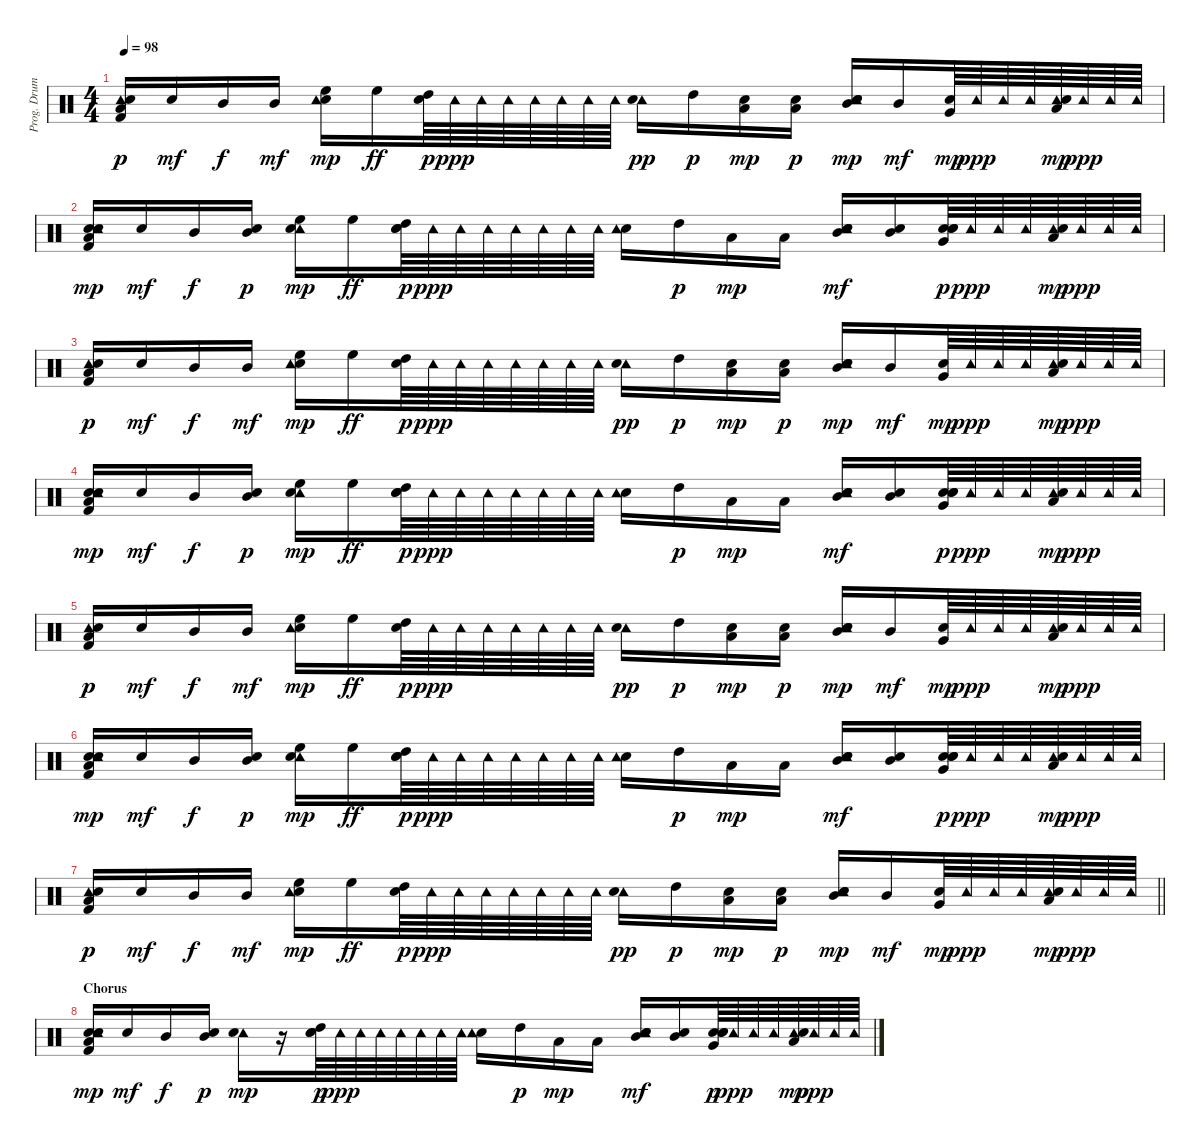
\track ("Prog. Drums" "Prog. Drum") {instrument percussion}
\staff {score}
\articulation defaults
\ts (4 4)
\tempo 98
\clef neutral
\ks c
("Tambourine (hit)" "Snare (hit)" "Low Floor Tom (hit)" "Kick (hit) 2").16{dy p} "Snare (hit)".16{dy mf} "Mid Tom (hit)".16{dy f} "Mid Tom (hit)".16{dy mf} ("Snare (hit) 2" "High Floor Tom (hit)" "Tambourine (hit)").16{dy mp} "High Floor Tom (hit)".16{dy ff} ("High Tom (hit)" "Snare (hit)").64{dy p} "Tambourine (hit)".64{dy ppp} "Tambourine (hit)".64 "Tambourine (hit)".64 "Tambourine (hit)".64 "Tambourine (hit)".64 "Tambourine (hit)".64 "Tambourine (hit)".64 ("Tambourine (hit)" "Snare (hit) 2").16{dy pp} "High Tom (hit)".16{dy p} ("Snare (hit)" "Low Tom (hit)").16{dy mp} ("Low Tom (hit)" "Snare (hit)").16{dy p} ("Snare (hit) 2" "Mid Tom (hit)" "Snare (hit)" "Tambourine (hit)").16{dy mp} "Mid Tom (hit)".16{dy mf} ("Snare (hit)" "Very Low Tom (hit)").64{dy mp} "Tambourine (hit)".64{dy ppp} "Tambourine (hit)".64 "Tambourine (hit)".64 ("Tambourine (hit)" "Snare (hit) 2" "Low Tom (hit)").64{dy mp} "Tambourine (hit)".64{dy ppp} "Tambourine (hit)".64 "Tambourine (hit)".64 |
("Snare (hit)" "Snare (hit)" "Tambourine (hit)" "Kick (hit) 2" "Low Floor Tom (hit)").16{dy mp} "Snare (hit)".16{dy mf} "Mid Tom (hit)".16{dy f} ("Mid Tom (hit)" "Snare (hit)").16{dy p} ("Tambourine (hit)" "High Floor Tom (hit)" "Snare (hit) 2").16{dy mp} "High Floor Tom (hit)".16{dy ff} ("High Tom (hit)" "Snare (hit)" "Snare (hit)").64{dy p} "Tambourine (hit)".64{dy ppp} "Tambourine (hit)".64 "Tambourine (hit)".64 "Tambourine (hit)".64 "Tambourine (hit)".64 "Tambourine (hit)".64 "Tambourine (hit)".64 ("Snare (hit) 2" "Tambourine (hit)").16 "High Tom (hit)".16{dy p} "Low Tom (hit)".16{dy mp} "Low Tom (hit)".16 ("Tambourine (hit)" "Snare (hit)" "Snare (hit) 2" "Mid Tom (hit)").16{dy mf} ("Snare (hit) 2" "Mid Tom (hit)").16 ("Snare (hit) 2" "Very Low Tom (hit)" "Snare (hit)" "Snare (hit)").64{dy p} "Tambourine (hit)".64{dy ppp} "Tambourine (hit)".64 "Tambourine (hit)".64 ("Tambourine (hit)" "Snare (hit) 2" "Low Tom (hit)").64{dy mp} "Tambourine (hit)".64{dy ppp} "Tambourine (hit)".64 "Tambourine (hit)".64 |
("Tambourine (hit)" "Snare (hit)" "Low Floor Tom (hit)" "Kick (hit) 2").16{dy p} "Snare (hit)".16{dy mf} "Mid Tom (hit)".16{dy f} "Mid Tom (hit)".16{dy mf} ("Snare (hit) 2" "High Floor Tom (hit)" "Tambourine (hit)").16{dy mp} "High Floor Tom (hit)".16{dy ff} ("High Tom (hit)" "Snare (hit)").64{dy p} "Tambourine (hit)".64{dy ppp} "Tambourine (hit)".64 "Tambourine (hit)".64 "Tambourine (hit)".64 "Tambourine (hit)".64 "Tambourine (hit)".64 "Tambourine (hit)".64 ("Tambourine (hit)" "Snare (hit) 2").16{dy pp} "High Tom (hit)".16{dy p} ("Snare (hit)" "Low Tom (hit)").16{dy mp} ("Low Tom (hit)" "Snare (hit)").16{dy p} ("Snare (hit) 2" "Mid Tom (hit)" "Snare (hit)" "Tambourine (hit)").16{dy mp} "Mid Tom (hit)".16{dy mf} ("Snare (hit)" "Very Low Tom (hit)").64{dy mp} "Tambourine (hit)".64{dy ppp} "Tambourine (hit)".64 "Tambourine (hit)".64 ("Tambourine (hit)" "Snare (hit) 2" "Low Tom (hit)").64{dy mp} "Tambourine (hit)".64{dy ppp} "Tambourine (hit)".64 "Tambourine (hit)".64 |
("Snare (hit)" "Snare (hit)" "Tambourine (hit)" "Kick (hit) 2" "Low Floor Tom (hit)").16{dy mp} "Snare (hit)".16{dy mf} "Mid Tom (hit)".16{dy f} ("Mid Tom (hit)" "Snare (hit)").16{dy p} ("Tambourine (hit)" "High Floor Tom (hit)" "Snare (hit) 2").16{dy mp} "High Floor Tom (hit)".16{dy ff} ("High Tom (hit)" "Snare (hit)" "Snare (hit)").64{dy p} "Tambourine (hit)".64{dy ppp} "Tambourine (hit)".64 "Tambourine (hit)".64 "Tambourine (hit)".64 "Tambourine (hit)".64 "Tambourine (hit)".64 "Tambourine (hit)".64 ("Snare (hit) 2" "Tambourine (hit)").16 "High Tom (hit)".16{dy p} "Low Tom (hit)".16{dy mp} "Low Tom (hit)".16 ("Tambourine (hit)" "Snare (hit)" "Snare (hit) 2" "Mid Tom (hit)").16{dy mf} ("Snare (hit) 2" "Mid Tom (hit)").16 ("Snare (hit) 2" "Very Low Tom (hit)" "Snare (hit)" "Snare (hit)").64{dy p} "Tambourine (hit)".64{dy ppp} "Tambourine (hit)".64 "Tambourine (hit)".64 ("Tambourine (hit)" "Snare (hit) 2" "Low Tom (hit)").64{dy mp} "Tambourine (hit)".64{dy ppp} "Tambourine (hit)".64 "Tambourine (hit)".64 |
("Tambourine (hit)" "Snare (hit)" "Low Floor Tom (hit)" "Kick (hit) 2").16{dy p} "Snare (hit)".16{dy mf} "Mid Tom (hit)".16{dy f} "Mid Tom (hit)".16{dy mf} ("Snare (hit) 2" "High Floor Tom (hit)" "Tambourine (hit)").16{dy mp} "High Floor Tom (hit)".16{dy ff} ("High Tom (hit)" "Snare (hit)").64{dy p} "Tambourine (hit)".64{dy ppp} "Tambourine (hit)".64 "Tambourine (hit)".64 "Tambourine (hit)".64 "Tambourine (hit)".64 "Tambourine (hit)".64 "Tambourine (hit)".64 ("Tambourine (hit)" "Snare (hit) 2").16{dy pp} "High Tom (hit)".16{dy p} ("Snare (hit)" "Low Tom (hit)").16{dy mp} ("Low Tom (hit)" "Snare (hit)").16{dy p} ("Snare (hit) 2" "Mid Tom (hit)" "Snare (hit)" "Tambourine (hit)").16{dy mp} "Mid Tom (hit)".16{dy mf} ("Snare (hit)" "Very Low Tom (hit)").64{dy mp} "Tambourine (hit)".64{dy ppp} "Tambourine (hit)".64 "Tambourine (hit)".64 ("Tambourine (hit)" "Snare (hit) 2" "Low Tom (hit)").64{dy mp} "Tambourine (hit)".64{dy ppp} "Tambourine (hit)".64 "Tambourine (hit)".64 |
("Snare (hit)" "Snare (hit)" "Tambourine (hit)" "Kick (hit) 2" "Low Floor Tom (hit)").16{dy mp} "Snare (hit)".16{dy mf} "Mid Tom (hit)".16{dy f} ("Mid Tom (hit)" "Snare (hit)").16{dy p} ("Tambourine (hit)" "High Floor Tom (hit)" "Snare (hit) 2").16{dy mp} "High Floor Tom (hit)".16{dy ff} ("High Tom (hit)" "Snare (hit)" "Snare (hit)").64{dy p} "Tambourine (hit)".64{dy ppp} "Tambourine (hit)".64 "Tambourine (hit)".64 "Tambourine (hit)".64 "Tambourine (hit)".64 "Tambourine (hit)".64 "Tambourine (hit)".64 ("Snare (hit) 2" "Tambourine (hit)").16 "High Tom (hit)".16{dy p} "Low Tom (hit)".16{dy mp} "Low Tom (hit)".16 ("Tambourine (hit)" "Snare (hit)" "Snare (hit) 2" "Mid Tom (hit)").16{dy mf} ("Snare (hit) 2" "Mid Tom (hit)").16 ("Snare (hit) 2" "Very Low Tom (hit)" "Snare (hit)" "Snare (hit)").64{dy p} "Tambourine (hit)".64{dy ppp} "Tambourine (hit)".64 "Tambourine (hit)".64 ("Tambourine (hit)" "Snare (hit) 2" "Low Tom (hit)").64{dy mp} "Tambourine (hit)".64{dy ppp} "Tambourine (hit)".64 "Tambourine (hit)".64 |
\barLineRight lightlight
("Tambourine (hit)" "Snare (hit)" "Low Floor Tom (hit)" "Kick (hit) 2").16{dy p} "Snare (hit)".16{dy mf} "Mid Tom (hit)".16{dy f} "Mid Tom (hit)".16{dy mf} ("Snare (hit) 2" "High Floor Tom (hit)" "Tambourine (hit)").16{dy mp} "High Floor Tom (hit)".16{dy ff} ("High Tom (hit)" "Snare (hit)").64{dy p} "Tambourine (hit)".64{dy ppp} "Tambourine (hit)".64 "Tambourine (hit)".64 "Tambourine (hit)".64 "Tambourine (hit)".64 "Tambourine (hit)".64 "Tambourine (hit)".64 ("Tambourine (hit)" "Snare (hit) 2").16{dy pp} "High Tom (hit)".16{dy p} ("Snare (hit)" "Low Tom (hit)").16{dy mp} ("Low Tom (hit)" "Snare (hit)").16{dy p} ("Snare (hit) 2" "Mid Tom (hit)" "Snare (hit)" "Tambourine (hit)").16{dy mp} "Mid Tom (hit)".16{dy mf} ("Snare (hit)" "Very Low Tom (hit)").64{dy mp} "Tambourine (hit)".64{dy ppp} "Tambourine (hit)".64 "Tambourine (hit)".64 ("Tambourine (hit)" "Snare (hit) 2" "Low Tom (hit)").64{dy mp} "Tambourine (hit)".64{dy ppp} "Tambourine (hit)".64 "Tambourine (hit)".64 |
\section ("" "Chorus")
("Snare (hit)" "Snare (hit)" "Tambourine (hit)" "Kick (hit) 2" "Low Floor Tom (hit)").16{dy mp} "Snare (hit)".16{dy mf} "Mid Tom (hit)".16{dy f} ("Mid Tom (hit)" "Snare (hit)").16{dy p} ("Tambourine (hit)" "Snare (hit) 2").16{dy mp} r.16 ("High Tom (hit)" "Snare (hit)" "Snare (hit)").64{dy p} "Tambourine (hit)".64{dy ppp} "Tambourine (hit)".64 "Tambourine (hit)".64 "Tambourine (hit)".64 "Tambourine (hit)".64 "Tambourine (hit)".64 "Tambourine (hit)".64 ("Snare (hit) 2" "Tambourine (hit)").16 "High Tom (hit)".16{dy p} "Low Tom (hit)".16{dy mp} "Low Tom (hit)".16 ("Tambourine (hit)" "Snare (hit)" "Snare (hit) 2" "Mid Tom (hit)").16{dy mf} ("Snare (hit) 2" "Mid Tom (hit)").16 ("Snare (hit) 2" "Very Low Tom (hit)" "Snare (hit)" "Snare (hit)").64{dy p} "Tambourine (hit)".64{dy ppp} "Tambourine (hit)".64 "Tambourine (hit)".64 ("Tambourine (hit)" "Snare (hit) 2" "Low Tom (hit)").64{dy mp} "Tambourine (hit)".64{dy ppp} "Tambourine (hit)".64 "Tambourine (hit)".64
